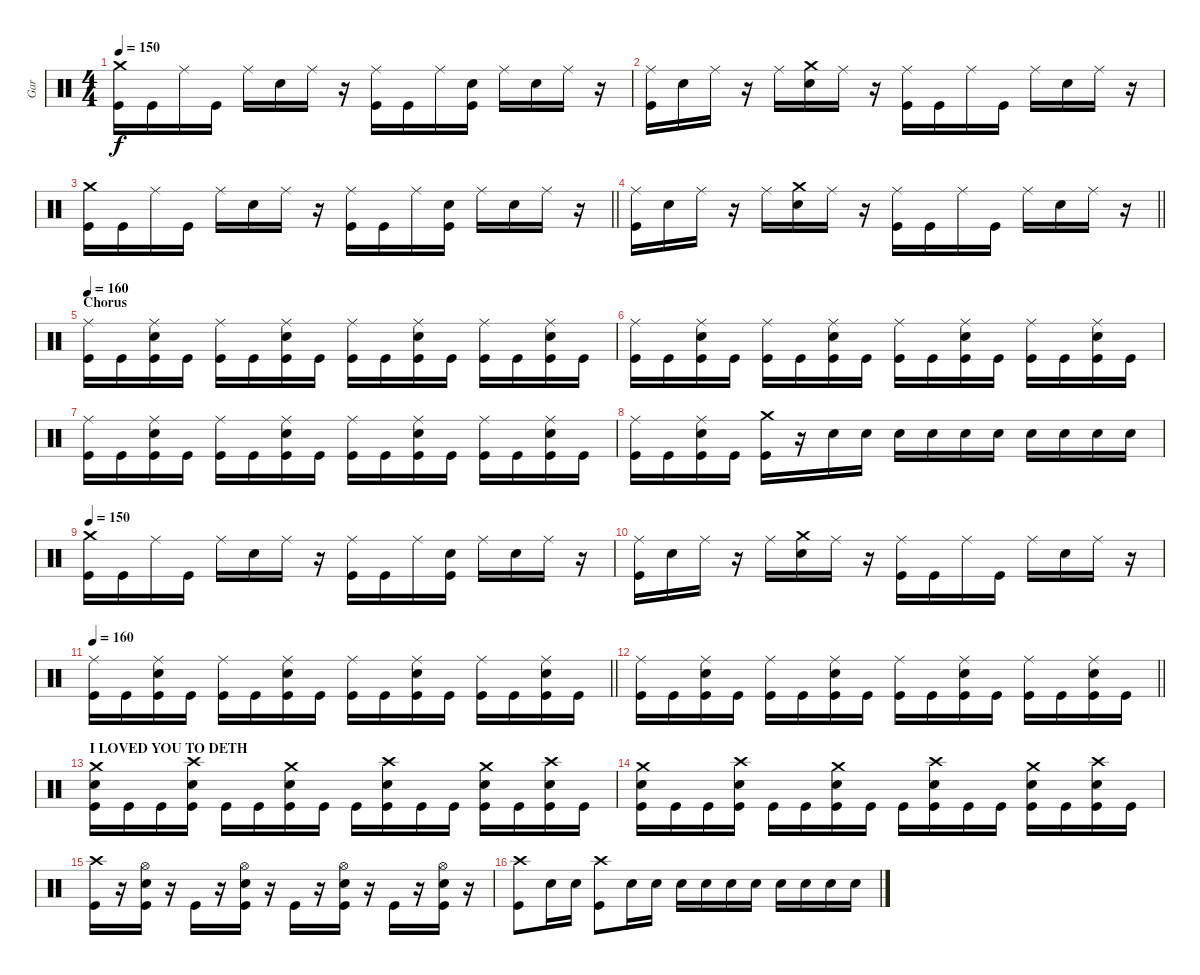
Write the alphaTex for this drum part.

\track ("Gar" "Gar") {instrument percussion}
\staff {score}
\articulation defaults
\ts (4 4)
\tempo 150
\clef neutral
\ks c
("Crash medium (hit)" "Kick (hit)").16{dy f} "Kick (hit)".16 "Ride (middle)".16 "Kick (hit)".16 "Ride (middle)".16 "Snare (hit) 2".16 "Ride (middle)".16 r.16 ("Ride (middle)" "Kick (hit)").16 "Kick (hit)".16 "Ride (middle)".16 ("Snare (hit) 2" "Kick (hit)").16 "Ride (middle)".16 "Snare (hit) 2".16 "Ride (middle)".16 r.16 |
("Ride (middle)" "Kick (hit)").16 "Snare (hit) 2".16 "Ride (middle)".16 r.16 "Ride (middle)".16 ("Crash medium (hit)" "Snare (hit) 2").16 "Ride (middle)".16 r.16 ("Ride (middle)" "Kick (hit)").16 "Kick (hit)".16 "Ride (middle)".16 "Kick (hit)".16 "Ride (middle)".16 "Snare (hit) 2".16 "Ride (middle)".16 r.16 |
\barLineRight lightlight
("Crash medium (hit)" "Kick (hit)").16 "Kick (hit)".16 "Ride (middle)".16 "Kick (hit)".16 "Ride (middle)".16 "Snare (hit) 2".16 "Ride (middle)".16 r.16 ("Ride (middle)" "Kick (hit)").16 "Kick (hit)".16 "Ride (middle)".16 ("Snare (hit) 2" "Kick (hit)").16 "Ride (middle)".16 "Snare (hit) 2".16 "Ride (middle)".16 r.16 |
\barLineRight lightlight
("Ride (middle)" "Kick (hit)").16 "Snare (hit) 2".16 "Ride (middle)".16 r.16 "Ride (middle)".16 ("Crash medium (hit)" "Snare (hit) 2").16 "Ride (middle)".16 r.16 ("Ride (middle)" "Kick (hit)").16 "Kick (hit)".16 "Ride (middle)".16 "Kick (hit)".16 "Ride (middle)".16 "Snare (hit) 2".16 "Ride (middle)".16 r.16 |
\section ("" "Chorus")
\tempo 160
("Ride (middle)" "Kick (hit)").16 "Kick (hit)".16 ("Ride (middle)" "Snare (hit) 2" "Kick (hit)").16 "Kick (hit)".16 ("Ride (middle)" "Kick (hit)").16 "Kick (hit)".16 ("Ride (middle)" "Snare (hit) 2" "Kick (hit)").16 "Kick (hit)".16 ("Ride (middle)" "Kick (hit)").16 "Kick (hit)".16 ("Ride (middle)" "Snare (hit) 2" "Kick (hit)").16 "Kick (hit)".16 ("Ride (middle)" "Kick (hit)").16 "Kick (hit)".16 ("Ride (middle)" "Snare (hit) 2" "Kick (hit)").16 "Kick (hit)".16 |
("Ride (middle)" "Kick (hit)").16 "Kick (hit)".16 ("Ride (middle)" "Snare (hit) 2" "Kick (hit)").16 "Kick (hit)".16 ("Ride (middle)" "Kick (hit)").16 "Kick (hit)".16 ("Ride (middle)" "Snare (hit) 2" "Kick (hit)").16 "Kick (hit)".16 ("Ride (middle)" "Kick (hit)").16 "Kick (hit)".16 ("Ride (middle)" "Snare (hit) 2" "Kick (hit)").16 "Kick (hit)".16 ("Ride (middle)" "Kick (hit)").16 "Kick (hit)".16 ("Ride (middle)" "Snare (hit) 2" "Kick (hit)").16 "Kick (hit)".16 |
("Ride (middle)" "Kick (hit)").16 "Kick (hit)".16 ("Ride (middle)" "Snare (hit) 2" "Kick (hit)").16 "Kick (hit)".16 ("Ride (middle)" "Kick (hit)").16 "Kick (hit)".16 ("Ride (middle)" "Snare (hit) 2" "Kick (hit)").16 "Kick (hit)".16 ("Ride (middle)" "Kick (hit)").16 "Kick (hit)".16 ("Ride (middle)" "Snare (hit) 2" "Kick (hit)").16 "Kick (hit)".16 ("Ride (middle)" "Kick (hit)").16 "Kick (hit)".16 ("Ride (middle)" "Snare (hit) 2" "Kick (hit)").16 "Kick (hit)".16 |
("Ride (middle)" "Kick (hit)").16 "Kick (hit)".16 ("Ride (middle)" "Snare (hit) 2" "Kick (hit)").16 "Kick (hit)".16 ("Crash medium (hit)" "Kick (hit)").16 r.16 "Snare (hit) 2".16 "Snare (hit) 2".16 "Snare (hit) 2".16 "Snare (hit) 2".16 "Snare (hit) 2".16 "Snare (hit) 2".16 "Snare (hit) 2".16 "Snare (hit) 2".16 "Snare (hit) 2".16 "Snare (hit) 2".16 |
\tempo 150
("Crash medium (hit)" "Kick (hit)").16 "Kick (hit)".16 "Ride (middle)".16 "Kick (hit)".16 "Ride (middle)".16 "Snare (hit) 2".16 "Ride (middle)".16 r.16 ("Ride (middle)" "Kick (hit)").16 "Kick (hit)".16 "Ride (middle)".16 ("Snare (hit) 2" "Kick (hit)").16 "Ride (middle)".16 "Snare (hit) 2".16 "Ride (middle)".16 r.16 |
("Ride (middle)" "Kick (hit)").16 "Snare (hit) 2".16 "Ride (middle)".16 r.16 "Ride (middle)".16 ("Crash medium (hit)" "Snare (hit) 2").16 "Ride (middle)".16 r.16 ("Ride (middle)" "Kick (hit)").16 "Kick (hit)".16 "Ride (middle)".16 "Kick (hit)".16 "Ride (middle)".16 "Snare (hit) 2".16 "Ride (middle)".16 r.16 |
\tempo 160
\barLineRight lightlight
("Ride (middle)" "Kick (hit)").16 "Kick (hit)".16 ("Ride (middle)" "Snare (hit) 2" "Kick (hit)").16 "Kick (hit)".16 ("Ride (middle)" "Kick (hit)").16 "Kick (hit)".16 ("Ride (middle)" "Snare (hit) 2" "Kick (hit)").16 "Kick (hit)".16 ("Ride (middle)" "Kick (hit)").16 "Kick (hit)".16 ("Ride (middle)" "Snare (hit) 2" "Kick (hit)").16 "Kick (hit)".16 ("Ride (middle)" "Kick (hit)").16 "Kick (hit)".16 ("Ride (middle)" "Snare (hit) 2" "Kick (hit)").16 "Kick (hit)".16 |
\barLineRight lightlight
("Ride (middle)" "Kick (hit)").16 "Kick (hit)".16 ("Ride (middle)" "Snare (hit) 2" "Kick (hit)").16 "Kick (hit)".16 ("Ride (middle)" "Kick (hit)").16 "Kick (hit)".16 ("Ride (middle)" "Snare (hit) 2" "Kick (hit)").16 "Kick (hit)".16 ("Ride (middle)" "Kick (hit)").16 "Kick (hit)".16 ("Ride (middle)" "Snare (hit) 2" "Kick (hit)").16 "Kick (hit)".16 ("Ride (middle)" "Kick (hit)").16 "Kick (hit)".16 ("Ride (middle)" "Snare (hit) 2" "Kick (hit)").16 "Kick (hit)".16 |
\section ("" "I LOVED YOU TO DETH")
("Crash medium (hit)" "Snare (hit) 2" "Kick (hit)").16 "Kick (hit)".16 "Kick (hit)".16 ("Crash high (hit)" "Snare (hit) 2" "Kick (hit)").16 "Kick (hit)".16 "Kick (hit)".16 ("Crash medium (hit)" "Snare (hit) 2" "Kick (hit)").16 "Kick (hit)".16 "Kick (hit)".16 ("Crash high (hit)" "Snare (hit) 2" "Kick (hit)").16 "Kick (hit)".16 "Kick (hit)".16 ("Crash medium (hit)" "Snare (hit) 2" "Kick (hit)").16 "Kick (hit)".16 ("Crash high (hit)" "Snare (hit) 2" "Kick (hit)").16 "Kick (hit)".16 |
("Crash medium (hit)" "Snare (hit) 2" "Kick (hit)").16 "Kick (hit)".16 "Kick (hit)".16 ("Crash high (hit)" "Snare (hit) 2" "Kick (hit)").16 "Kick (hit)".16 "Kick (hit)".16 ("Crash medium (hit)" "Snare (hit) 2" "Kick (hit)").16 "Kick (hit)".16 "Kick (hit)".16 ("Crash high (hit)" "Snare (hit) 2" "Kick (hit)").16 "Kick (hit)".16 "Kick (hit)".16 ("Crash medium (hit)" "Snare (hit) 2" "Kick (hit)").16 "Kick (hit)".16 ("Crash high (hit)" "Snare (hit) 2" "Kick (hit)").16 "Kick (hit)".16 |
("Crash high (hit)" "Kick (hit)").16 r.16 ("Hi-Hat (open)" "Snare (hit) 2" "Kick (hit)").16 r.16 "Kick (hit)".16 r.16 ("Hi-Hat (open)" "Snare (hit) 2" "Kick (hit)").16 r.16 "Kick (hit)".16 r.16 ("Hi-Hat (open)" "Snare (hit) 2" "Kick (hit)").16 r.16 "Kick (hit)".16 r.16 ("Hi-Hat (open)" "Snare (hit) 2" "Kick (hit)").16 r.16 |
("Crash high (hit)" "Kick (hit)").8 "Snare (hit) 2".16 "Snare (hit) 2".16 ("Crash high (hit)" "Kick (hit)").8 "Snare (hit) 2".16 "Snare (hit) 2".16 "Snare (hit) 2".16 "Snare (hit) 2".16 "Snare (hit) 2".16 "Snare (hit) 2".16 "Snare (hit) 2".16 "Snare (hit) 2".16 "Snare (hit) 2".16 "Snare (hit) 2".16
